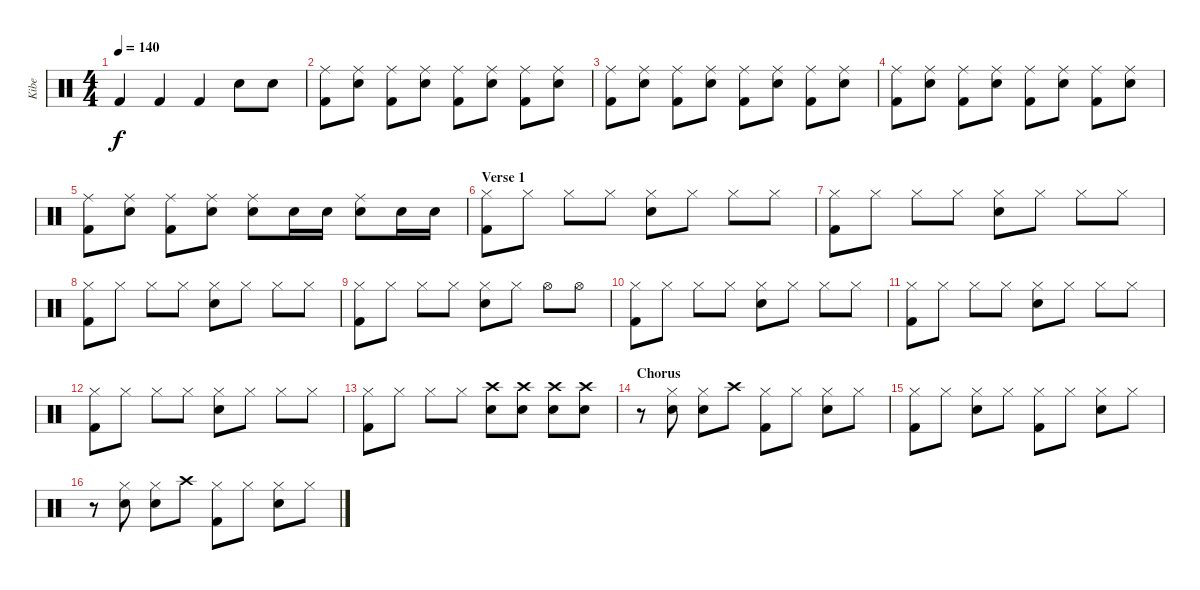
\track ("Kibe" "Kibe") {instrument percussion}
\staff {score}
\articulation defaults
\ts (4 4)
\tempo 140
\clef neutral
\ks c "Kick (hit) 2".4{dy f} "Kick (hit) 2".4 "Kick (hit) 2".4 "Snare (hit) 2".8 "Snare (hit) 2".8
|
("Ride (middle)" "Kick (hit) 2").8 ("Ride (middle)" "Snare (hit) 2").8 ("Ride (middle)" "Kick (hit) 2").8 ("Ride (middle)" "Snare (hit) 2").8 ("Ride (middle)" "Kick (hit) 2").8 ("Ride (middle)" "Snare (hit) 2").8 ("Ride (middle)" "Kick (hit) 2").8 ("Ride (middle)" "Snare (hit) 2").8 |
("Ride (middle)" "Kick (hit) 2").8 ("Ride (middle)" "Snare (hit) 2").8 ("Ride (middle)" "Kick (hit) 2").8 ("Ride (middle)" "Snare (hit) 2").8 ("Ride (middle)" "Kick (hit) 2").8 ("Ride (middle)" "Snare (hit) 2").8 ("Ride (middle)" "Kick (hit) 2").8 ("Ride (middle)" "Snare (hit) 2").8 |
("Ride (middle)" "Kick (hit) 2").8 ("Ride (middle)" "Snare (hit) 2").8 ("Ride (middle)" "Kick (hit) 2").8 ("Ride (middle)" "Snare (hit) 2").8 ("Ride (middle)" "Kick (hit) 2").8 ("Ride (middle)" "Snare (hit) 2").8 ("Ride (middle)" "Kick (hit) 2").8 ("Ride (middle)" "Snare (hit) 2").8 |
("Ride (middle)" "Kick (hit) 2").8 ("Ride (middle)" "Snare (hit) 2").8 ("Ride (middle)" "Kick (hit) 2").8 ("Ride (middle)" "Snare (hit) 2").8 ("Ride (middle)" "Snare (hit) 2").8 "Snare (hit) 2".16 "Snare (hit) 2".16 ("Ride (middle)" "Snare (hit) 2").8 "Snare (hit) 2".16 "Snare (hit) 2".16 |
\section ("" "Verse 1")
("Hi-Hat (closed)" "Kick (hit) 2").8 "Hi-Hat (closed)".8 "Hi-Hat (closed)".8 "Hi-Hat (closed)".8 ("Hi-Hat (closed)" "Snare (hit) 2").8 "Hi-Hat (closed)".8 "Hi-Hat (closed)".8 "Hi-Hat (closed)".8 |
("Hi-Hat (closed)" "Kick (hit) 2").8 "Hi-Hat (closed)".8 "Hi-Hat (closed)".8 "Hi-Hat (closed)".8 ("Hi-Hat (closed)" "Snare (hit) 2").8 "Hi-Hat (closed)".8 "Hi-Hat (closed)".8 "Hi-Hat (closed)".8 |
("Hi-Hat (closed)" "Kick (hit) 2").8 "Hi-Hat (closed)".8 "Hi-Hat (closed)".8 "Hi-Hat (closed)".8 ("Hi-Hat (closed)" "Snare (hit) 2").8 "Hi-Hat (closed)".8 "Hi-Hat (closed)".8 "Hi-Hat (closed)".8 |
("Hi-Hat (closed)" "Kick (hit) 2").8 "Hi-Hat (closed)".8 "Hi-Hat (closed)".8 "Hi-Hat (closed)".8 ("Hi-Hat (closed)" "Snare (hit) 2").8 "Hi-Hat (closed)".8 "Hi-Hat (open)".8 "Hi-Hat (open)".8 |
("Hi-Hat (closed)" "Kick (hit) 2").8 "Hi-Hat (closed)".8 "Hi-Hat (closed)".8 "Hi-Hat (closed)".8 ("Hi-Hat (closed)" "Snare (hit) 2").8 "Hi-Hat (closed)".8 "Hi-Hat (closed)".8 "Hi-Hat (closed)".8 |
("Hi-Hat (closed)" "Kick (hit) 2").8 "Hi-Hat (closed)".8 "Hi-Hat (closed)".8 "Hi-Hat (closed)".8 ("Hi-Hat (closed)" "Snare (hit) 2").8 "Hi-Hat (closed)".8 "Hi-Hat (closed)".8 "Hi-Hat (closed)".8 |
("Hi-Hat (closed)" "Kick (hit) 2").8 "Hi-Hat (closed)".8 "Hi-Hat (closed)".8 "Hi-Hat (closed)".8 ("Hi-Hat (closed)" "Snare (hit) 2").8 "Hi-Hat (closed)".8 "Hi-Hat (closed)".8 "Hi-Hat (closed)".8 |
("Hi-Hat (closed)" "Kick (hit) 2").8 "Hi-Hat (closed)".8 "Hi-Hat (closed)".8 "Hi-Hat (closed)".8 ("Crash high (hit)" "Snare (hit) 2").8 ("Crash high (hit)" "Snare (hit) 2").8 ("Crash high (hit)" "Snare (hit) 2").8 ("Crash high (hit)" "Snare (hit) 2").8 |
\section ("" "Chorus")
r.8 ("Hi-Hat (closed)" "Snare (hit) 2").8 ("Hi-Hat (closed)" "Snare (hit) 2").8 "Crash high (hit)".8 ("Hi-Hat (closed)" "Kick (hit) 2").8 "Hi-Hat (closed)".8 ("Hi-Hat (closed)" "Snare (hit) 2").8 "Hi-Hat (closed)".8 |
("Hi-Hat (closed)" "Kick (hit) 2").8 "Hi-Hat (closed)".8 ("Hi-Hat (closed)" "Snare (hit) 2").8 "Hi-Hat (closed)".8 ("Hi-Hat (closed)" "Kick (hit) 2").8 "Hi-Hat (closed)".8 ("Hi-Hat (closed)" "Snare (hit) 2").8 "Hi-Hat (closed)".8 |
r.8 ("Hi-Hat (closed)" "Snare (hit) 2").8 ("Hi-Hat (closed)" "Snare (hit) 2").8 "Crash high (hit)".8 ("Hi-Hat (closed)" "Kick (hit) 2").8 "Hi-Hat (closed)".8 ("Hi-Hat (closed)" "Snare (hit) 2").8 "Hi-Hat (closed)".8
